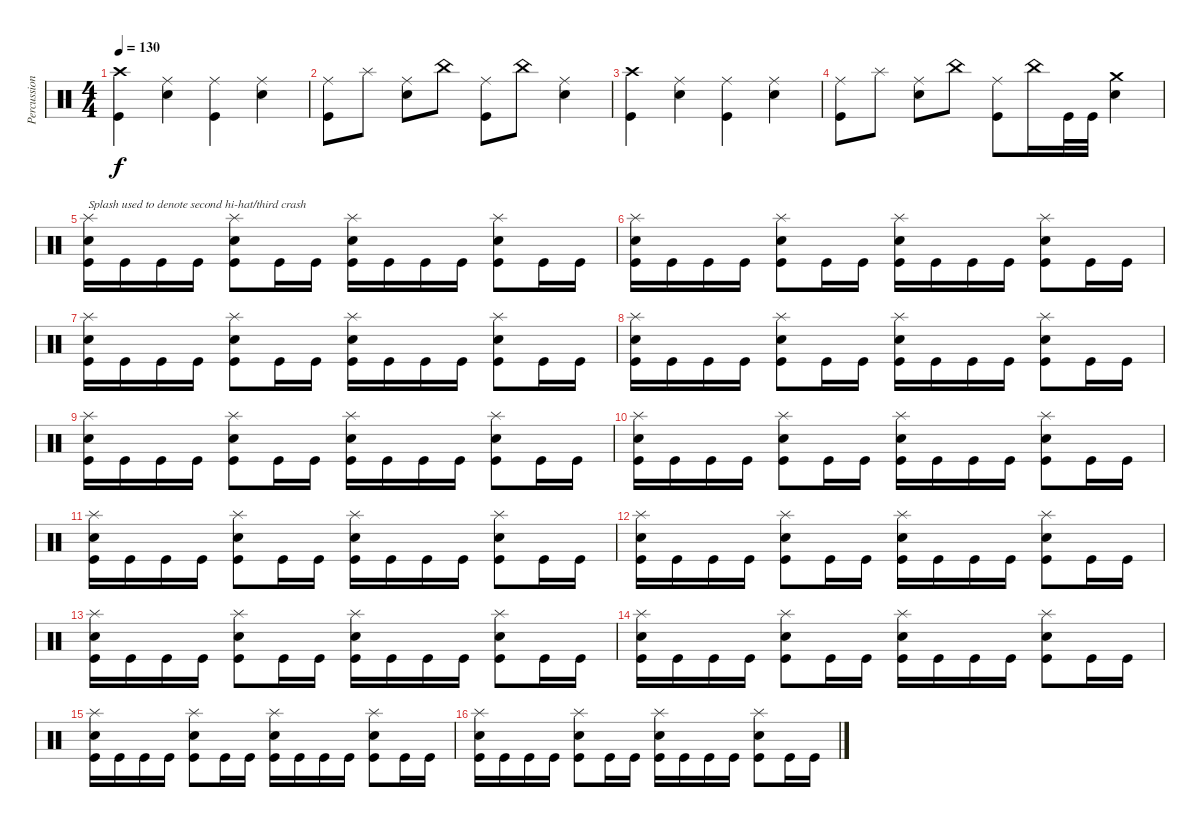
\track ("Percussion" "Percussion") {instrument percussion}
\staff {score}
\articulation defaults
\ts (4 4)
\tempo 130
\clef neutral
\ks c
("Crash high (hit)" "Kick (hit)").4{dy f} ("Ride (middle)" "Electric Snare (hit)").4 ("Ride (middle)" "Kick (hit)").4 ("Ride (middle)" "Electric Snare (hit)").4 |
("Ride (middle)" "Kick (hit)").8 "Splash (hit)".8 ("Ride (middle)" "Electric Snare (hit)").8 "China (hit)".8 ("Ride (middle)" "Kick (hit)").8 "China (hit)".8 ("Ride (middle)" "Electric Snare (hit)").4 |
("Crash high (hit)" "Kick (hit)").4 ("Ride (middle)" "Electric Snare (hit)").4 ("Ride (middle)" "Kick (hit)").4 ("Ride (middle)" "Electric Snare (hit)").4 |
("Ride (middle)" "Kick (hit)").8 "Splash (hit)".8 ("Ride (middle)" "Electric Snare (hit)").8 "China (hit)".8 ("Ride (middle)" "Kick (hit)").8 "China (hit)".16 "Kick (hit)".32 "Kick (hit)".32 ("Crash medium (hit)" "Electric Snare (hit)").4 |
("Splash (hit)" "Electric Snare (hit)" "Kick (hit)").16{txt "Splash used to denote second hi-hat/third crash"} "Kick (hit)".16 "Kick (hit)".16 "Kick (hit)".16 ("Splash (hit)" "Electric Snare (hit)" "Kick (hit)").8 "Kick (hit)".16 "Kick (hit)".16 ("Splash (hit)" "Electric Snare (hit)" "Kick (hit)").16 "Kick (hit)".16 "Kick (hit)".16 "Kick (hit)".16 ("Splash (hit)" "Electric Snare (hit)" "Kick (hit)").8 "Kick (hit)".16 "Kick (hit)".16 |
("Splash (hit)" "Electric Snare (hit)" "Kick (hit)").16 "Kick (hit)".16 "Kick (hit)".16 "Kick (hit)".16 ("Splash (hit)" "Electric Snare (hit)" "Kick (hit)").8 "Kick (hit)".16 "Kick (hit)".16 ("Splash (hit)" "Electric Snare (hit)" "Kick (hit)").16 "Kick (hit)".16 "Kick (hit)".16 "Kick (hit)".16 ("Splash (hit)" "Electric Snare (hit)" "Kick (hit)").8 "Kick (hit)".16 "Kick (hit)".16 |
("Splash (hit)" "Electric Snare (hit)" "Kick (hit)").16 "Kick (hit)".16 "Kick (hit)".16 "Kick (hit)".16 ("Splash (hit)" "Electric Snare (hit)" "Kick (hit)").8 "Kick (hit)".16 "Kick (hit)".16 ("Splash (hit)" "Electric Snare (hit)" "Kick (hit)").16 "Kick (hit)".16 "Kick (hit)".16 "Kick (hit)".16 ("Splash (hit)" "Electric Snare (hit)" "Kick (hit)").8 "Kick (hit)".16 "Kick (hit)".16 |
("Splash (hit)" "Electric Snare (hit)" "Kick (hit)").16 "Kick (hit)".16 "Kick (hit)".16 "Kick (hit)".16 ("Splash (hit)" "Electric Snare (hit)" "Kick (hit)").8 "Kick (hit)".16 "Kick (hit)".16 ("Splash (hit)" "Electric Snare (hit)" "Kick (hit)").16 "Kick (hit)".16 "Kick (hit)".16 "Kick (hit)".16 ("Splash (hit)" "Electric Snare (hit)" "Kick (hit)").8 "Kick (hit)".16 "Kick (hit)".16 |
("Splash (hit)" "Electric Snare (hit)" "Kick (hit)").16 "Kick (hit)".16 "Kick (hit)".16 "Kick (hit)".16 ("Splash (hit)" "Electric Snare (hit)" "Kick (hit)").8 "Kick (hit)".16 "Kick (hit)".16 ("Splash (hit)" "Electric Snare (hit)" "Kick (hit)").16 "Kick (hit)".16 "Kick (hit)".16 "Kick (hit)".16 ("Splash (hit)" "Electric Snare (hit)" "Kick (hit)").8 "Kick (hit)".16 "Kick (hit)".16 |
("Splash (hit)" "Electric Snare (hit)" "Kick (hit)").16 "Kick (hit)".16 "Kick (hit)".16 "Kick (hit)".16 ("Splash (hit)" "Electric Snare (hit)" "Kick (hit)").8 "Kick (hit)".16 "Kick (hit)".16 ("Splash (hit)" "Electric Snare (hit)" "Kick (hit)").16 "Kick (hit)".16 "Kick (hit)".16 "Kick (hit)".16 ("Splash (hit)" "Electric Snare (hit)" "Kick (hit)").8 "Kick (hit)".16 "Kick (hit)".16 |
("Splash (hit)" "Electric Snare (hit)" "Kick (hit)").16 "Kick (hit)".16 "Kick (hit)".16 "Kick (hit)".16 ("Splash (hit)" "Electric Snare (hit)" "Kick (hit)").8 "Kick (hit)".16 "Kick (hit)".16 ("Splash (hit)" "Electric Snare (hit)" "Kick (hit)").16 "Kick (hit)".16 "Kick (hit)".16 "Kick (hit)".16 ("Splash (hit)" "Electric Snare (hit)" "Kick (hit)").8 "Kick (hit)".16 "Kick (hit)".16 |
("Splash (hit)" "Electric Snare (hit)" "Kick (hit)").16 "Kick (hit)".16 "Kick (hit)".16 "Kick (hit)".16 ("Splash (hit)" "Electric Snare (hit)" "Kick (hit)").8 "Kick (hit)".16 "Kick (hit)".16 ("Splash (hit)" "Electric Snare (hit)" "Kick (hit)").16 "Kick (hit)".16 "Kick (hit)".16 "Kick (hit)".16 ("Splash (hit)" "Electric Snare (hit)" "Kick (hit)").8 "Kick (hit)".16 "Kick (hit)".16 |
("Splash (hit)" "Electric Snare (hit)" "Kick (hit)").16 "Kick (hit)".16 "Kick (hit)".16 "Kick (hit)".16 ("Splash (hit)" "Electric Snare (hit)" "Kick (hit)").8 "Kick (hit)".16 "Kick (hit)".16 ("Splash (hit)" "Electric Snare (hit)" "Kick (hit)").16 "Kick (hit)".16 "Kick (hit)".16 "Kick (hit)".16 ("Splash (hit)" "Electric Snare (hit)" "Kick (hit)").8 "Kick (hit)".16 "Kick (hit)".16 |
("Splash (hit)" "Electric Snare (hit)" "Kick (hit)").16 "Kick (hit)".16 "Kick (hit)".16 "Kick (hit)".16 ("Splash (hit)" "Electric Snare (hit)" "Kick (hit)").8 "Kick (hit)".16 "Kick (hit)".16 ("Splash (hit)" "Electric Snare (hit)" "Kick (hit)").16 "Kick (hit)".16 "Kick (hit)".16 "Kick (hit)".16 ("Splash (hit)" "Electric Snare (hit)" "Kick (hit)").8 "Kick (hit)".16 "Kick (hit)".16 |
("Splash (hit)" "Electric Snare (hit)" "Kick (hit)").16 "Kick (hit)".16 "Kick (hit)".16 "Kick (hit)".16 ("Splash (hit)" "Electric Snare (hit)" "Kick (hit)").8 "Kick (hit)".16 "Kick (hit)".16 ("Splash (hit)" "Electric Snare (hit)" "Kick (hit)").16 "Kick (hit)".16 "Kick (hit)".16 "Kick (hit)".16 ("Splash (hit)" "Electric Snare (hit)" "Kick (hit)").8 "Kick (hit)".16 "Kick (hit)".16 |
("Splash (hit)" "Electric Snare (hit)" "Kick (hit)").16 "Kick (hit)".16 "Kick (hit)".16 "Kick (hit)".16 ("Splash (hit)" "Electric Snare (hit)" "Kick (hit)").8 "Kick (hit)".16 "Kick (hit)".16 ("Splash (hit)" "Electric Snare (hit)" "Kick (hit)").16 "Kick (hit)".16 "Kick (hit)".16 "Kick (hit)".16 ("Splash (hit)" "Electric Snare (hit)" "Kick (hit)").8 "Kick (hit)".16 "Kick (hit)".16
